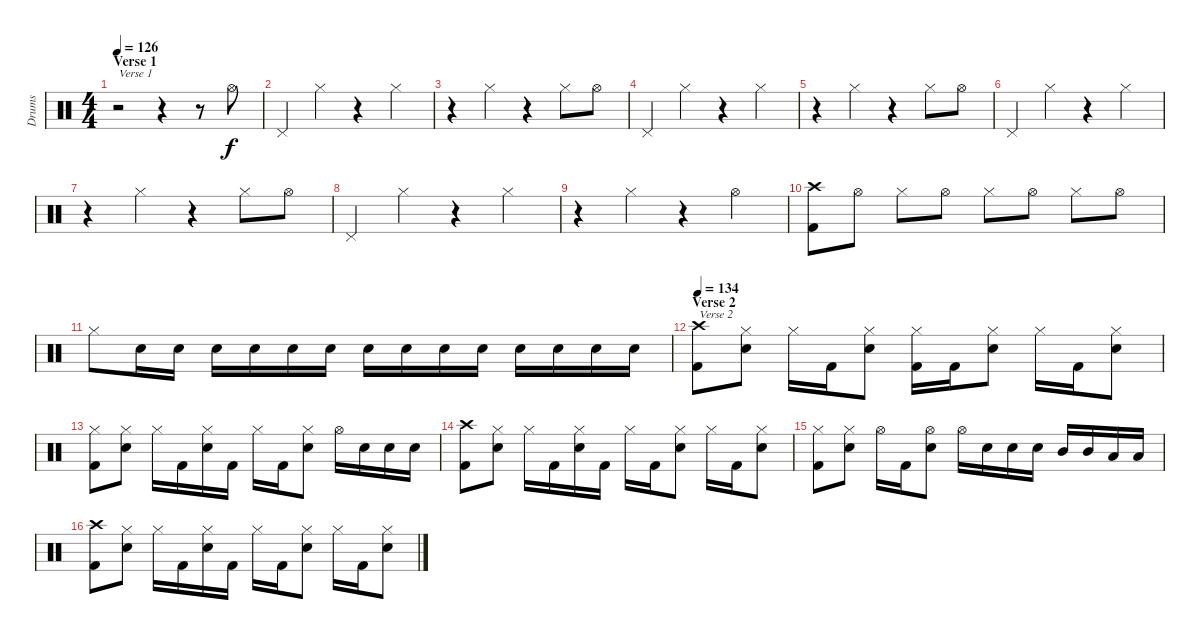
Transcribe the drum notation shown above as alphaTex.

\track ("Drums" "Drums") {instrument percussion}
\staff {score}
\articulation defaults
\ts (4 4)
\section ("" "Verse 1")
\tempo 126
\clef neutral
\ks c
r.2{txt "Verse 1" dy f} r.4 r.8 "Hi-Hat (open)".8 |
"Pedal Hi-Hat (hit)".4 "Hi-Hat (closed)".4 r.4 "Hi-Hat (closed)".4 |
r.4 "Hi-Hat (closed)".4 r.4 "Hi-Hat (closed)".8 "Hi-Hat (open)".8 |
"Pedal Hi-Hat (hit)".4 "Hi-Hat (closed)".4 r.4 "Hi-Hat (closed)".4 |
r.4 "Hi-Hat (closed)".4 r.4 "Hi-Hat (closed)".8 "Hi-Hat (open)".8 |
"Pedal Hi-Hat (hit)".4 "Hi-Hat (closed)".4 r.4 "Hi-Hat (closed)".4 |
r.4 "Hi-Hat (closed)".4 r.4 "Hi-Hat (closed)".8 "Hi-Hat (open)".8 |
"Pedal Hi-Hat (hit)".4 "Hi-Hat (closed)".4 r.4 "Hi-Hat (closed)".4 |
r.4 "Hi-Hat (closed)".4 r.4 "Hi-Hat (open)".4 |
("Crash high (hit)" "Kick (hit) 2").8 "Hi-Hat (open)".8 "Hi-Hat (closed)".8 "Hi-Hat (open)".8 "Hi-Hat (closed)".8 "Hi-Hat (open)".8 "Hi-Hat (closed)".8 "Hi-Hat (open)".8 |
"Hi-Hat (closed)".8 "Electric Snare (hit)".16 "Electric Snare (hit)".16 "Electric Snare (hit)".16 "Electric Snare (hit)".16 "Electric Snare (hit)".16 "Electric Snare (hit)".16 "Electric Snare (hit)".16 "Electric Snare (hit)".16 "Electric Snare (hit)".16 "Electric Snare (hit)".16 "Electric Snare (hit)".16 "Electric Snare (hit)".16 "Electric Snare (hit)".16 "Electric Snare (hit)".16 |
\section ("" "Verse 2")
\tempo 134
("Crash high (hit)" "Kick (hit) 2").8{txt "Verse 2"} ("Hi-Hat (closed)" "Electric Snare (hit)").8 "Hi-Hat (closed)".16 "Kick (hit) 2".16 ("Hi-Hat (closed)" "Electric Snare (hit)").8 ("Hi-Hat (closed)" "Kick (hit) 2").16 "Kick (hit) 2".16 ("Hi-Hat (closed)" "Electric Snare (hit)").8 "Hi-Hat (closed)".16 "Kick (hit) 2".16 ("Hi-Hat (closed)" "Electric Snare (hit)").8 |
("Hi-Hat (closed)" "Kick (hit) 2").8 ("Hi-Hat (closed)" "Electric Snare (hit)").8 "Hi-Hat (closed)".16 "Kick (hit) 2".16 ("Hi-Hat (closed)" "Electric Snare (hit)").16 "Kick (hit) 2".16 "Hi-Hat (closed)".16 "Kick (hit) 2".16 ("Hi-Hat (closed)" "Electric Snare (hit)").8 "Hi-Hat (open)".16 "Electric Snare (hit)".16 "Electric Snare (hit)".16 "Electric Snare (hit)".16 |
("Crash high (hit)" "Kick (hit) 2").8 ("Hi-Hat (closed)" "Electric Snare (hit)").8 "Hi-Hat (closed)".16 "Kick (hit) 2".16 ("Hi-Hat (closed)" "Electric Snare (hit)").16 "Kick (hit) 2".16 "Hi-Hat (closed)".16 "Kick (hit) 2".16 ("Hi-Hat (closed)" "Electric Snare (hit)").8 "Hi-Hat (closed)".16 "Kick (hit) 2".16 ("Hi-Hat (closed)" "Electric Snare (hit)").8 |
("Hi-Hat (closed)" "Kick (hit) 2").8 ("Hi-Hat (closed)" "Electric Snare (hit)").8 "Hi-Hat (open)".16 "Kick (hit) 2".16 ("Hi-Hat (open)" "Electric Snare (hit)").8 "Hi-Hat (open)".16 "Electric Snare (hit)".16 "Electric Snare (hit)".16 "Electric Snare (hit)".16 "Mid Tom (hit)".16 "Mid Tom (hit)".16 "Low Floor Tom (hit)".16 "Low Floor Tom (hit)".16 |
("Crash high (hit)" "Kick (hit) 2").8 ("Hi-Hat (closed)" "Electric Snare (hit)").8 "Hi-Hat (closed)".16 "Kick (hit) 2".16 ("Hi-Hat (closed)" "Electric Snare (hit)").16 "Kick (hit) 2".16 "Hi-Hat (closed)".16 "Kick (hit) 2".16 ("Hi-Hat (closed)" "Electric Snare (hit)").8 "Hi-Hat (closed)".16 "Kick (hit) 2".16 ("Hi-Hat (closed)" "Electric Snare (hit)").8
